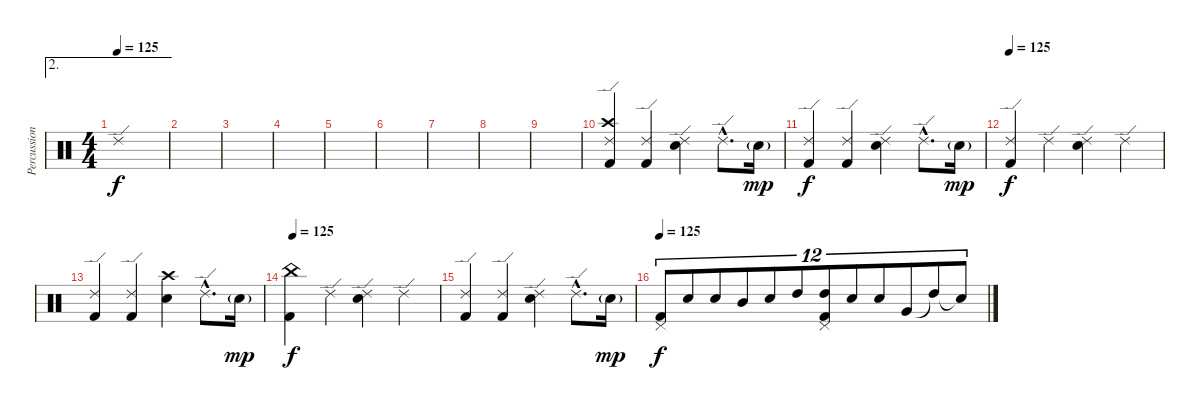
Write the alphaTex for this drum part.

\track ("Percussion - Or" "Percussion") {instrument percussion}
\staff {score}
\articulation defaults
\ae 2
\ts (4 4)
\tempo 125
\clef neutral
\ks c "Ride (edge) 2".1{dy f}
|
|
|
|
|
|
|
|
|
("Crash high (hit)" "Ride (edge) 2" "Kick (hit) 2").4 ("Ride (edge) 2" "Kick (hit) 2").4 ("Ride (edge) 2" "Snare (hit) 2").4 "Ride (edge) 2"{hac}.8{d} "Snare (hit) 2"{g}.16{dy mp} |
("Ride (edge) 2" "Kick (hit) 2").4{dy f} ("Ride (edge) 2" "Kick (hit) 2").4 ("Ride (edge) 2" "Snare (hit) 2").4 "Ride (edge) 2"{hac}.8{d} "Snare (hit) 2"{g}.16{dy mp} |
\tempo 125
("Ride (edge) 2" "Kick (hit) 2").4{dy f} "Ride (edge) 2".4 ("Ride (edge) 2" "Snare (hit) 2").4 "Ride (edge) 2".4 |
("Ride (edge) 2" "Kick (hit) 2").4 ("Ride (edge) 2" "Kick (hit) 2").4 ("Crash high (hit)" "Snare (hit) 2").4 "Ride (edge) 2"{hac}.8{d} "Snare (hit) 2"{g}.16{dy mp} |
\tempo 125
("China (hit)" "Kick (hit) 2").4{dy f} "Ride (edge) 2".4 ("Ride (edge) 2" "Snare (hit) 2").4 "Ride (edge) 2".4 |
("Ride (edge) 2" "Kick (hit) 2").4 ("Ride (edge) 2" "Kick (hit) 2").4 ("Ride (edge) 2" "Snare (hit) 2").4 "Ride (edge) 2"{hac}.8{d} "Snare (hit) 2"{g}.16{dy mp} |
\tempo 125
("Pedal Hi-Hat (hit)" "Kick (hit) 2").8{tu (12 8) dy f} "Snare (hit) 2".8{tu (12 8)} "Snare (hit) 2".8{tu (12 8)} "Mid Tom (hit)".8{tu (12 8)} "Snare (hit) 2".8{tu (12 8)} "High Tom (hit)".8{tu (12 8)} ("Pedal Hi-Hat (hit)" "High Tom (hit)" "Kick (hit) 2").8{tu (12 8)} "Snare (hit) 2".8{tu (12 8)} "Snare (hit) 2".8{tu (12 8)} "Very Low Tom (hit)".8{tu (12 8)} "High Tom (hit)"{t}.8{tu (12 8)} "Snare (hit)"{t}.8{tu (12 8)}
